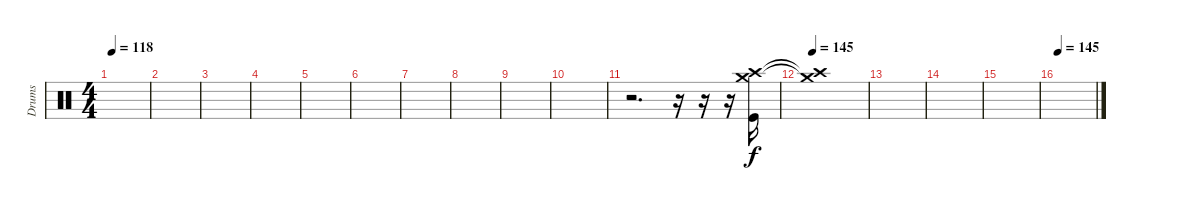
\track ("Drums" "Drums") {instrument percussion}
\staff {score}
\articulation defaults
\ts (4 4)
\tempo 118
\clef neutral
\ks c
|
|
|
|
|
|
|
|
|
|
r.2{d} r.16 r.16 r.16 ("Crash medium (hit)" "Crash high (hit)" "Kick (hit)").16 |
\tempo 145
("Crash medium (hit)"{t} "Crash high (hit)"{t}).1 |
|
|
|
\tempo 145
